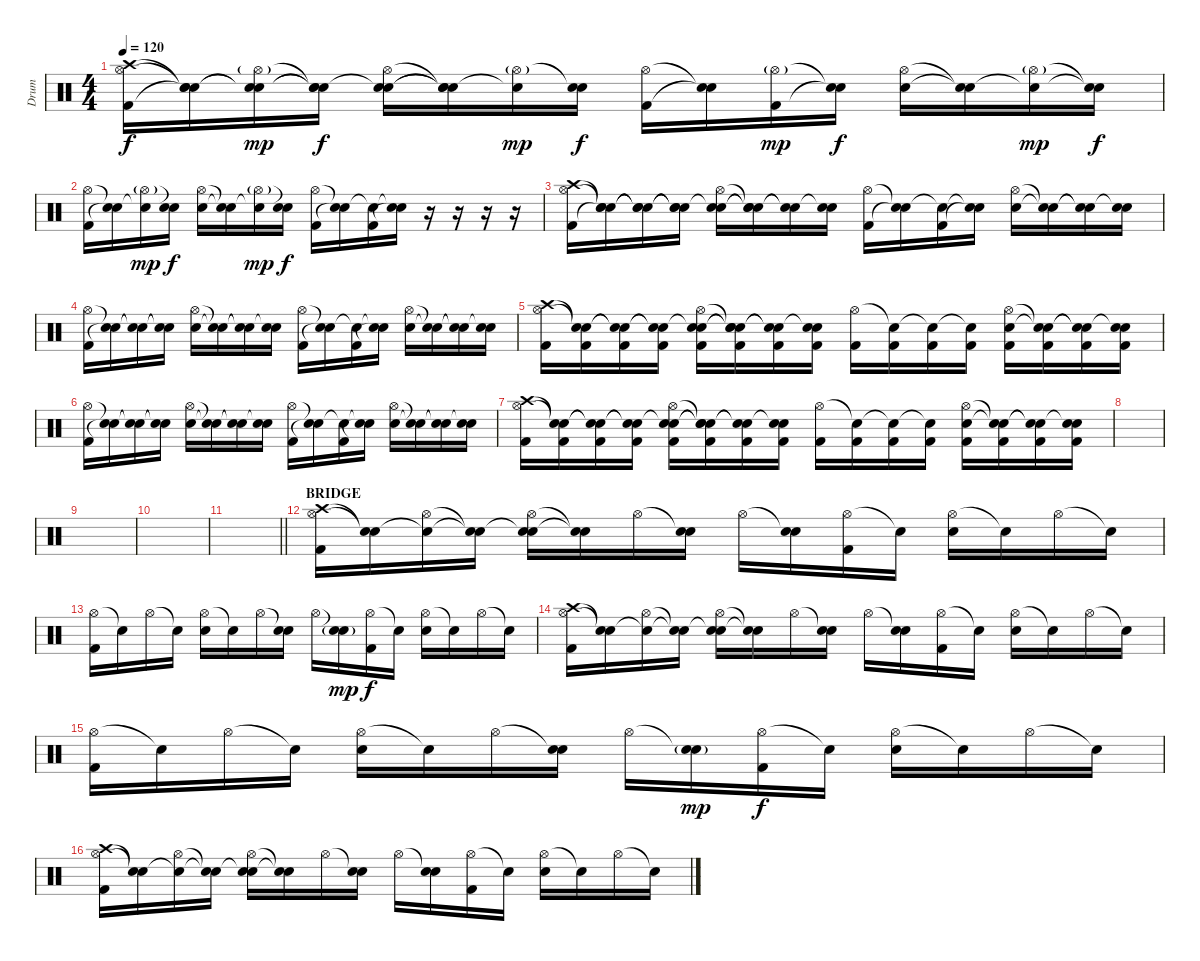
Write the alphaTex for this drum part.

\track ("Drum" "Drum") {instrument percussion}
\staff {score}
\articulation defaults
\ts (4 4)
\tempo 120
\clef neutral
\ks c
("Crash high (hit)" "Hi-Hat (open)" "Kick (hit) 2").16{dy f} ("Snare (hit)"{t} "Snare (hit)"{t} "Snare (hit)"{t}).16 ("Snare (hit)"{t} "Hi-Hat (open)"{g} "Snare (hit)"{t}).16{dy mp} ("Snare (hit)"{t} "Snare (hit)"{t} "Snare (hit)"{t}).16{dy f} ("Snare (hit)"{t} "Hi-Hat (open)" "Electric Snare (hit)").16 ("Snare (hit)"{t} "Snare (hit)"{t} "Snare (hit)"{t}).16 ("Hi-Hat (open)"{g} "Snare (hit)"{t}).16{dy mp} ("Snare (hit)"{t} "Electric Snare (hit)").16{dy f} ("Hi-Hat (open)" "Kick (hit) 2").16 ("Snare (hit)"{t} "Snare (hit)"{t}).16 ("Hi-Hat (open)"{g} "Kick (hit) 2").16{dy mp} ("Snare (hit)"{t} "Snare (hit)"{t}).16{dy f} ("Hi-Hat (open)" "Electric Snare (hit)").16 ("Snare (hit)"{t} "Snare (hit)"{t}).16 ("Hi-Hat (open)"{g} "Snare (hit)"{t}).16{dy mp} ("Snare (hit)"{t} "Snare (hit)"{t}).16{dy f} |
("Hi-Hat (open)" "Kick (hit) 2").16 ("Snare (hit)"{t} "Snare (hit)"{t}).16 ("Hi-Hat (open)"{g} "Snare (hit)"{t}).16{dy mp} ("Snare (hit)"{t} "Snare (hit)"{t}).16{dy f} ("Hi-Hat (open)" "Electric Snare (hit)").16 ("Snare (hit)"{t} "Snare (hit)"{t}).16 ("Hi-Hat (open)"{g} "Snare (hit)"{t}).16{dy mp} ("Snare (hit)"{t} "Electric Snare (hit)").16{dy f} ("Hi-Hat (open)" "Kick (hit) 2").16 ("Snare (hit)"{t} "Snare (hit)"{t}).16 ("Snare (hit)"{t} "Kick (hit) 2").16 ("Snare (hit)"{t} "Snare (hit)"{t}).16 r.16 r.16 r.16 r.16 |
("Crash high (hit)" "Hi-Hat (open)" "Kick (hit) 2").16 ("Snare (hit)"{t} "Snare (hit)"{t} "Snare (hit)"{t}).16 ("Snare (hit)"{t} "Snare (hit)"{t} "Snare (hit)"{t}).16 ("Snare (hit)"{t} "Snare (hit)"{t} "Snare (hit)"{t}).16 ("Snare (hit)"{t} "Hi-Hat (open)" "Electric Snare (hit)").16 ("Snare (hit)"{t} "Snare (hit)"{t} "Snare (hit)"{t}).16 ("Snare (hit)"{t} "Snare (hit)"{t}).16 ("Snare (hit)"{t} "Electric Snare (hit)").16 ("Hi-Hat (open)" "Kick (hit) 2").16 ("Snare (hit)"{t} "Snare (hit)"{t}).16 ("Snare (hit)"{t} "Kick (hit) 2").16 ("Snare (hit)"{t} "Snare (hit)"{t}).16 ("Hi-Hat (open)" "Electric Snare (hit)").16 ("Snare (hit)"{t} "Snare (hit)"{t}).16 ("Snare (hit)"{t} "Snare (hit)"{t}).16 ("Snare (hit)"{t} "Electric Snare (hit)").16 |
("Hi-Hat (open)" "Kick (hit) 2").16 ("Snare (hit)"{t} "Snare (hit)"{t}).16 ("Snare (hit)"{t} "Snare (hit)"{t}).16 ("Snare (hit)"{t} "Snare (hit)"{t}).16 ("Hi-Hat (open)" "Electric Snare (hit)").16 ("Snare (hit)"{t} "Snare (hit)"{t}).16 ("Snare (hit)"{t} "Snare (hit)"{t}).16 ("Snare (hit)"{t} "Electric Snare (hit)").16 ("Hi-Hat (open)" "Kick (hit) 2").16 ("Snare (hit)"{t} "Snare (hit)"{t}).16 ("Snare (hit)"{t} "Kick (hit) 2").16 ("Snare (hit)"{t} "Snare (hit)"{t}).16 ("Hi-Hat (open)" "Electric Snare (hit)").16 ("Snare (hit)"{t} "Snare (hit)"{t}).16 ("Snare (hit)"{t} "Snare (hit)"{t}).16 ("Snare (hit)"{t} "Electric Snare (hit)").16 |
("Crash high (hit)" "Hi-Hat (open)" "Kick (hit) 2").16 ("Snare (hit)"{t} "Snare (hit)"{t} "Kick (hit) 2").16 ("Snare (hit)"{t} "Snare (hit)"{t} "Kick (hit) 2").16 ("Snare (hit)"{t} "Snare (hit)"{t} "Kick (hit) 2").16 ("Snare (hit)"{t} "Hi-Hat (open)" "Electric Snare (hit)" "Kick (hit) 2").16 ("Snare (hit)"{t} "Snare (hit)"{t} "Snare (hit)"{t} "Kick (hit) 2").16 ("Snare (hit)"{t} "Snare (hit)"{t} "Kick (hit) 2").16 ("Snare (hit)"{t} "Electric Snare (hit)" "Kick (hit) 2").16 ("Hi-Hat (open)" "Kick (hit) 2").16 ("Snare (hit)"{t} "Kick (hit) 2").16 ("Snare (hit)"{t} "Kick (hit) 2").16 ("Snare (hit)"{t} "Kick (hit) 2").16 ("Hi-Hat (open)" "Electric Snare (hit)" "Kick (hit) 2").16 ("Snare (hit)"{t} "Snare (hit)"{t} "Kick (hit) 2").16 ("Snare (hit)"{t} "Snare (hit)"{t} "Kick (hit) 2").16 ("Snare (hit)"{t} "Electric Snare (hit)" "Kick (hit) 2").16 |
("Hi-Hat (open)" "Kick (hit) 2").16 ("Snare (hit)"{t} "Snare (hit)"{t}).16 ("Snare (hit)"{t} "Snare (hit)"{t}).16 ("Snare (hit)"{t} "Snare (hit)"{t}).16 ("Hi-Hat (open)" "Electric Snare (hit)").16 ("Snare (hit)"{t} "Snare (hit)"{t}).16 ("Snare (hit)"{t} "Snare (hit)"{t}).16 ("Snare (hit)"{t} "Electric Snare (hit)").16 ("Hi-Hat (open)" "Kick (hit) 2").16 ("Snare (hit)"{t} "Snare (hit)"{t}).16 ("Snare (hit)"{t} "Kick (hit) 2").16 ("Snare (hit)"{t} "Snare (hit)"{t}).16 ("Hi-Hat (open)" "Electric Snare (hit)").16 ("Snare (hit)"{t} "Snare (hit)"{t}).16 ("Snare (hit)"{t} "Snare (hit)"{t}).16 ("Snare (hit)"{t} "Electric Snare (hit)").16 |
("Crash high (hit)" "Hi-Hat (open)" "Kick (hit) 2").16 ("Snare (hit)"{t} "Snare (hit)"{t} "Kick (hit) 2").16 ("Snare (hit)"{t} "Snare (hit)"{t} "Kick (hit) 2").16 ("Snare (hit)"{t} "Snare (hit)"{t} "Kick (hit) 2").16 ("Snare (hit)"{t} "Hi-Hat (open)" "Electric Snare (hit)" "Kick (hit) 2").16 ("Snare (hit)"{t} "Snare (hit)"{t} "Snare (hit)"{t} "Kick (hit) 2").16 ("Snare (hit)"{t} "Snare (hit)"{t} "Kick (hit) 2").16 ("Snare (hit)"{t} "Electric Snare (hit)" "Kick (hit) 2").16 ("Hi-Hat (open)" "Kick (hit) 2").16 ("Snare (hit)"{t} "Kick (hit) 2").16 ("Snare (hit)"{t} "Kick (hit) 2").16 ("Snare (hit)"{t} "Kick (hit) 2").16 ("Hi-Hat (open)" "Electric Snare (hit)" "Kick (hit) 2").16 ("Snare (hit)"{t} "Snare (hit)"{t} "Kick (hit) 2").16 ("Snare (hit)"{t} "Snare (hit)"{t} "Kick (hit) 2").16 ("Snare (hit)"{t} "Electric Snare (hit)" "Kick (hit) 2").16 |
|
|
|
\barLineRight lightlight
|
\section ("" "BRIDGE")
("Crash high (hit)" "Hi-Hat (open)" "Kick (hit) 2").16 ("Snare (hit)"{t} "Snare (hit)"{t}).16 ("Snare (hit)"{t} "Hi-Hat (open)").16 ("Snare (hit)"{t} "Snare (hit)"{t}).16 ("Snare (hit)"{t} "Hi-Hat (open)" "Electric Snare (hit)").16 ("Snare (hit)"{t} "Snare (hit)"{t}).16 "Hi-Hat (open)".16 ("Snare (hit)"{t} "Electric Snare (hit)").16 "Hi-Hat (open)".16 ("Snare (hit)"{t} "Electric Snare (hit)").16 ("Hi-Hat (open)" "Kick (hit) 2").16 "Snare (hit)"{t}.16 ("Hi-Hat (open)" "Electric Snare (hit)").16 "Snare (hit)"{t}.16 "Hi-Hat (open)".16 "Snare (hit)"{t}.16 |
("Hi-Hat (open)" "Kick (hit) 2").16 "Snare (hit)"{t}.16 "Hi-Hat (open)".16 "Snare (hit)"{t}.16 ("Hi-Hat (open)" "Electric Snare (hit)").16 "Snare (hit)"{t}.16 "Hi-Hat (open)".16 ("Snare (hit)"{t} "Electric Snare (hit)").16 "Hi-Hat (open)".16 ("Snare (hit)"{t} "Electric Snare (hit)"{g}).16{dy mp} ("Hi-Hat (open)" "Kick (hit) 2").16{dy f} "Snare (hit)"{t}.16 ("Hi-Hat (open)" "Electric Snare (hit)").16 "Snare (hit)"{t}.16 "Hi-Hat (open)".16 "Snare (hit)"{t}.16 |
("Crash high (hit)" "Hi-Hat (open)" "Kick (hit) 2").16 ("Snare (hit)"{t} "Snare (hit)"{t}).16 ("Snare (hit)"{t} "Hi-Hat (open)").16 ("Snare (hit)"{t} "Snare (hit)"{t}).16 ("Snare (hit)"{t} "Hi-Hat (open)" "Electric Snare (hit)").16 ("Snare (hit)"{t} "Snare (hit)"{t}).16 "Hi-Hat (open)".16 ("Snare (hit)"{t} "Electric Snare (hit)").16 "Hi-Hat (open)".16 ("Snare (hit)"{t} "Electric Snare (hit)").16 ("Hi-Hat (open)" "Kick (hit) 2").16 "Snare (hit)"{t}.16 ("Hi-Hat (open)" "Electric Snare (hit)").16 "Snare (hit)"{t}.16 "Hi-Hat (open)".16 "Snare (hit)"{t}.16 |
("Hi-Hat (open)" "Kick (hit) 2").16 "Snare (hit)"{t}.16 "Hi-Hat (open)".16 "Snare (hit)"{t}.16 ("Hi-Hat (open)" "Electric Snare (hit)").16 "Snare (hit)"{t}.16 "Hi-Hat (open)".16 ("Snare (hit)"{t} "Electric Snare (hit)").16 "Hi-Hat (open)".16 ("Snare (hit)"{t} "Electric Snare (hit)"{g}).16{dy mp} ("Hi-Hat (open)" "Kick (hit) 2").16{dy f} "Snare (hit)"{t}.16 ("Hi-Hat (open)" "Electric Snare (hit)").16 "Snare (hit)"{t}.16 "Hi-Hat (open)".16 "Snare (hit)"{t}.16 |
("Crash high (hit)" "Hi-Hat (open)" "Kick (hit) 2").16 ("Snare (hit)"{t} "Snare (hit)"{t}).16 ("Snare (hit)"{t} "Hi-Hat (open)").16 ("Snare (hit)"{t} "Snare (hit)"{t}).16 ("Snare (hit)"{t} "Hi-Hat (open)" "Electric Snare (hit)").16 ("Snare (hit)"{t} "Snare (hit)"{t}).16 "Hi-Hat (open)".16 ("Snare (hit)"{t} "Electric Snare (hit)").16 "Hi-Hat (open)".16 ("Snare (hit)"{t} "Electric Snare (hit)").16 ("Hi-Hat (open)" "Kick (hit) 2").16 "Snare (hit)"{t}.16 ("Hi-Hat (open)" "Electric Snare (hit)").16 "Snare (hit)"{t}.16 "Hi-Hat (open)".16 "Snare (hit)"{t}.16
